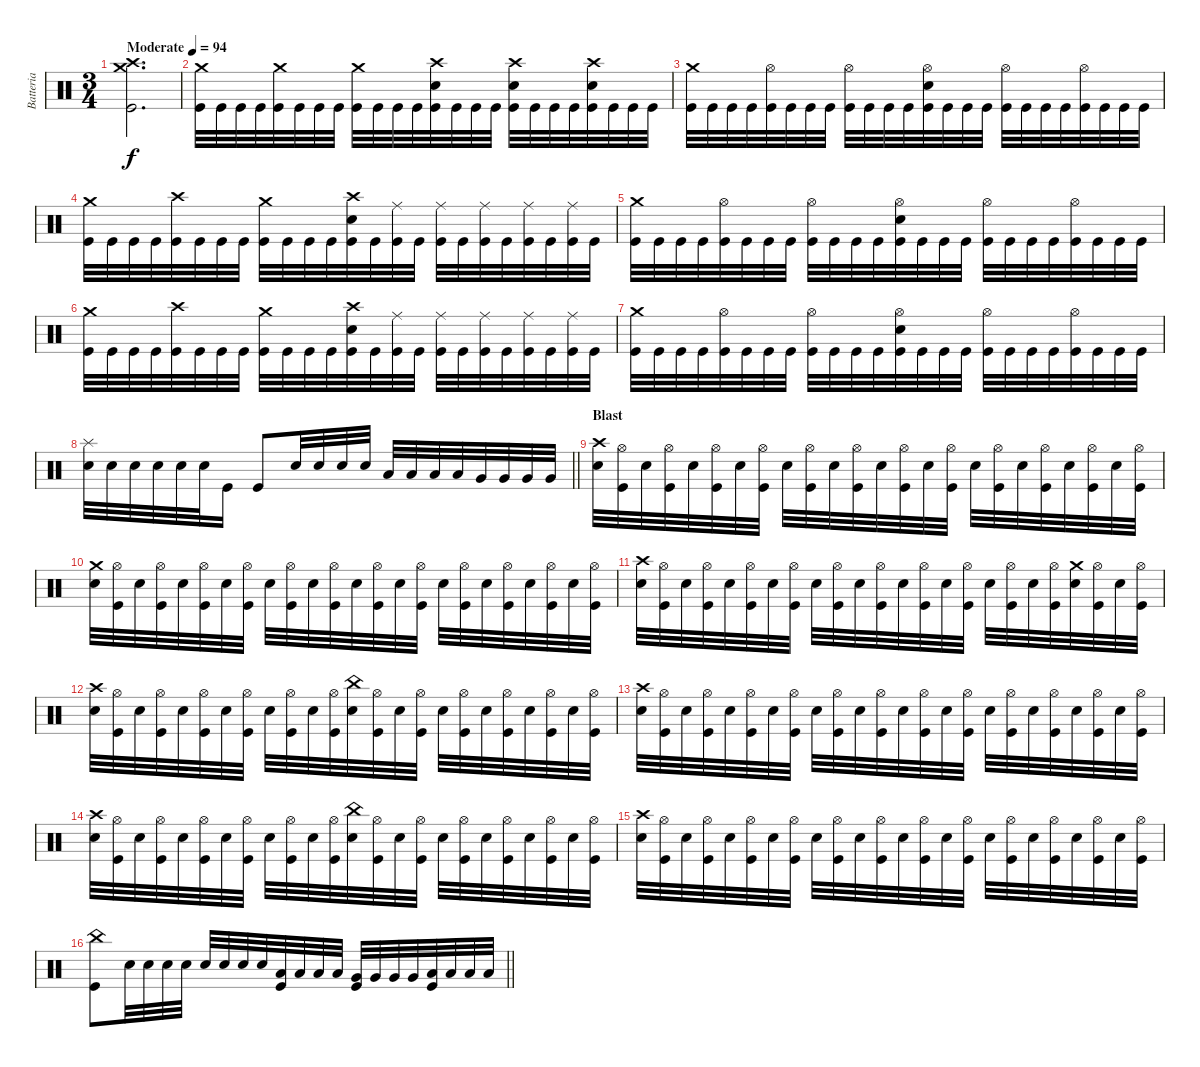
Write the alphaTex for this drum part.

\track ("Batteria" "Batteria") {instrument percussion}
\staff {score}
\articulation defaults
\ts (3 4)
\tempo (94 "Moderate")
\clef neutral
\ks c
("Crash medium (hit)" "Crash high (hit)" "Kick (hit)").2{d dy f} |
("Crash medium (hit)" "Kick (hit)").32 "Kick (hit)".32 "Kick (hit)".32 "Kick (hit)".32 ("Crash medium (hit)" "Kick (hit)").32 "Kick (hit)".32 "Kick (hit)".32 "Kick (hit)".32 ("Crash medium (hit)" "Kick (hit)").32 "Kick (hit)".32 "Kick (hit)".32 "Kick (hit)".32 ("Crash high (hit)" "Snare (hit) 2" "Kick (hit)").32 "Kick (hit)".32 "Kick (hit)".32 "Kick (hit)".32 ("Crash high (hit)" "Snare (hit) 2" "Kick (hit)").32 "Kick (hit)".32 "Kick (hit)".32 "Kick (hit)".32 ("Crash high (hit)" "Snare (hit) 2" "Kick (hit)").32 "Kick (hit)".32 "Kick (hit)".32 "Kick (hit)".32 |
("Crash medium (hit)" "Kick (hit)").32 "Kick (hit)".32 "Kick (hit)".32 "Kick (hit)".32 ("Hi-Hat (open)" "Kick (hit)").32 "Kick (hit)".32 "Kick (hit)".32 "Kick (hit)".32 ("Hi-Hat (open)" "Kick (hit)").32 "Kick (hit)".32 "Kick (hit)".32 "Kick (hit)".32 ("Hi-Hat (open)" "Snare (hit) 2" "Kick (hit)").32 "Kick (hit)".32 "Kick (hit)".32 "Kick (hit)".32 ("Hi-Hat (open)" "Kick (hit)").32 "Kick (hit)".32 "Kick (hit)".32 "Kick (hit)".32 ("Hi-Hat (open)" "Kick (hit)").32 "Kick (hit)".32 "Kick (hit)".32 "Kick (hit)".32 |
("Crash medium (hit)" "Kick (hit)").32 "Kick (hit)".32 "Kick (hit)".32 "Kick (hit)".32 ("Crash high (hit)" "Kick (hit)").32 "Kick (hit)".32 "Kick (hit)".32 "Kick (hit)".32 ("Crash medium (hit)" "Kick (hit)").32 "Kick (hit)".32 "Kick (hit)".32 "Kick (hit)".32 ("Crash high (hit)" "Snare (hit) 2" "Kick (hit)").32 "Kick (hit)".32 ("Ride (middle)" "Kick (hit)").32 "Kick (hit)".32 ("Ride (middle)" "Kick (hit)").32 "Kick (hit)".32 ("Ride (middle)" "Kick (hit)").32 "Kick (hit)".32 ("Ride (middle)" "Kick (hit)").32 "Kick (hit)".32 ("Ride (middle)" "Kick (hit)").32 "Kick (hit)".32 |
("Crash medium (hit)" "Kick (hit)").32 "Kick (hit)".32 "Kick (hit)".32 "Kick (hit)".32 ("Hi-Hat (open)" "Kick (hit)").32 "Kick (hit)".32 "Kick (hit)".32 "Kick (hit)".32 ("Hi-Hat (open)" "Kick (hit)").32 "Kick (hit)".32 "Kick (hit)".32 "Kick (hit)".32 ("Hi-Hat (open)" "Snare (hit) 2" "Kick (hit)").32 "Kick (hit)".32 "Kick (hit)".32 "Kick (hit)".32 ("Hi-Hat (open)" "Kick (hit)").32 "Kick (hit)".32 "Kick (hit)".32 "Kick (hit)".32 ("Hi-Hat (open)" "Kick (hit)").32 "Kick (hit)".32 "Kick (hit)".32 "Kick (hit)".32 |
("Crash medium (hit)" "Kick (hit)").32 "Kick (hit)".32 "Kick (hit)".32 "Kick (hit)".32 ("Crash high (hit)" "Kick (hit)").32 "Kick (hit)".32 "Kick (hit)".32 "Kick (hit)".32 ("Crash medium (hit)" "Kick (hit)").32 "Kick (hit)".32 "Kick (hit)".32 "Kick (hit)".32 ("Crash high (hit)" "Snare (hit) 2" "Kick (hit)").32 "Kick (hit)".32 ("Ride (middle)" "Kick (hit)").32 "Kick (hit)".32 ("Ride (middle)" "Kick (hit)").32 "Kick (hit)".32 ("Ride (middle)" "Kick (hit)").32 "Kick (hit)".32 ("Ride (middle)" "Kick (hit)").32 "Kick (hit)".32 ("Ride (middle)" "Kick (hit)").32 "Kick (hit)".32 |
("Crash medium (hit)" "Kick (hit)").32 "Kick (hit)".32 "Kick (hit)".32 "Kick (hit)".32 ("Hi-Hat (open)" "Kick (hit)").32 "Kick (hit)".32 "Kick (hit)".32 "Kick (hit)".32 ("Hi-Hat (open)" "Kick (hit)").32 "Kick (hit)".32 "Kick (hit)".32 "Kick (hit)".32 ("Hi-Hat (open)" "Snare (hit) 2" "Kick (hit)").32 "Kick (hit)".32 "Kick (hit)".32 "Kick (hit)".32 ("Hi-Hat (open)" "Kick (hit)").32 "Kick (hit)".32 "Kick (hit)".32 "Kick (hit)".32 ("Hi-Hat (open)" "Kick (hit)").32 "Kick (hit)".32 "Kick (hit)".32 "Kick (hit)".32 |
\barLineRight lightlight
("Splash (hit)" "Snare (hit) 2").32 "Snare (hit) 2".32 "Snare (hit) 2".32 "Snare (hit) 2".32 "Snare (hit) 2".32 "Snare (hit) 2".32 "Kick (hit)".16 "Kick (hit)".8 "Snare (hit) 2".32 "Snare (hit) 2".32 "Snare (hit) 2".32 "Snare (hit) 2".32 "Low Tom (hit)".32 "Low Tom (hit)".32 "Low Tom (hit)".32 "Low Tom (hit)".32 "Very Low Tom (hit)".32 "Very Low Tom (hit)".32 "Very Low Tom (hit)".32 "Very Low Tom (hit)".32 |
\section ("" "Blast")
("Crash high (hit)" "Snare (hit) 2").32 ("Hi-Hat (open)" "Kick (hit)").32 "Snare (hit) 2".32 ("Hi-Hat (open)" "Kick (hit)").32 "Snare (hit) 2".32 ("Hi-Hat (open)" "Kick (hit)").32 "Snare (hit) 2".32 ("Hi-Hat (open)" "Kick (hit)").32 "Snare (hit) 2".32 ("Hi-Hat (open)" "Kick (hit)").32 "Snare (hit) 2".32 ("Hi-Hat (open)" "Kick (hit)").32 "Snare (hit) 2".32 ("Hi-Hat (open)" "Kick (hit)").32 "Snare (hit) 2".32 ("Hi-Hat (open)" "Kick (hit)").32 "Snare (hit) 2".32 ("Hi-Hat (open)" "Kick (hit)").32 "Snare (hit) 2".32 ("Hi-Hat (open)" "Kick (hit)").32 "Snare (hit) 2".32 ("Hi-Hat (open)" "Kick (hit)").32 "Snare (hit) 2".32 ("Hi-Hat (open)" "Kick (hit)").32 |
("Crash medium (hit)" "Snare (hit) 2").32 ("Hi-Hat (open)" "Kick (hit)").32 "Snare (hit) 2".32 ("Hi-Hat (open)" "Kick (hit)").32 "Snare (hit) 2".32 ("Hi-Hat (open)" "Kick (hit)").32 "Snare (hit) 2".32 ("Hi-Hat (open)" "Kick (hit)").32 "Snare (hit) 2".32 ("Hi-Hat (open)" "Kick (hit)").32 "Snare (hit) 2".32 ("Hi-Hat (open)" "Kick (hit)").32 "Snare (hit) 2".32 ("Hi-Hat (open)" "Kick (hit)").32 "Snare (hit) 2".32 ("Hi-Hat (open)" "Kick (hit)").32 "Snare (hit) 2".32 ("Hi-Hat (open)" "Kick (hit)").32 "Snare (hit) 2".32 ("Hi-Hat (open)" "Kick (hit)").32 "Snare (hit) 2".32 ("Hi-Hat (open)" "Kick (hit)").32 "Snare (hit) 2".32 ("Hi-Hat (open)" "Kick (hit)").32 |
("Crash high (hit)" "Snare (hit) 2").32 ("Hi-Hat (open)" "Kick (hit)").32 "Snare (hit) 2".32 ("Hi-Hat (open)" "Kick (hit)").32 "Snare (hit) 2".32 ("Hi-Hat (open)" "Kick (hit)").32 "Snare (hit) 2".32 ("Hi-Hat (open)" "Kick (hit)").32 "Snare (hit) 2".32 ("Hi-Hat (open)" "Kick (hit)").32 "Snare (hit) 2".32 ("Hi-Hat (open)" "Kick (hit)").32 "Snare (hit) 2".32 ("Hi-Hat (open)" "Kick (hit)").32 "Snare (hit) 2".32 ("Hi-Hat (open)" "Kick (hit)").32 "Snare (hit) 2".32 ("Hi-Hat (open)" "Kick (hit)").32 "Snare (hit) 2".32 ("Hi-Hat (open)" "Kick (hit)").32 ("Crash medium (hit)" "Snare (hit) 2").32 ("Hi-Hat (open)" "Kick (hit)").32 "Snare (hit) 2".32 ("Hi-Hat (open)" "Kick (hit)").32 |
("Crash high (hit)" "Snare (hit) 2").32 ("Hi-Hat (open)" "Kick (hit)").32 "Snare (hit) 2".32 ("Hi-Hat (open)" "Kick (hit)").32 "Snare (hit) 2".32 ("Hi-Hat (open)" "Kick (hit)").32 "Snare (hit) 2".32 ("Hi-Hat (open)" "Kick (hit)").32 "Snare (hit) 2".32 ("Hi-Hat (open)" "Kick (hit)").32 "Snare (hit) 2".32 ("Hi-Hat (open)" "Kick (hit)").32 ("China (hit)" "Snare (hit) 2").32 ("Hi-Hat (open)" "Kick (hit)").32 "Snare (hit) 2".32 ("Hi-Hat (open)" "Kick (hit)").32 "Snare (hit) 2".32 ("Hi-Hat (open)" "Kick (hit)").32 "Snare (hit) 2".32 ("Hi-Hat (open)" "Kick (hit)").32 "Snare (hit) 2".32 ("Hi-Hat (open)" "Kick (hit)").32 "Snare (hit) 2".32 ("Hi-Hat (open)" "Kick (hit)").32 |
("Crash high (hit)" "Snare (hit) 2").32 ("Hi-Hat (open)" "Kick (hit)").32 "Snare (hit) 2".32 ("Hi-Hat (open)" "Kick (hit)").32 "Snare (hit) 2".32 ("Hi-Hat (open)" "Kick (hit)").32 "Snare (hit) 2".32 ("Hi-Hat (open)" "Kick (hit)").32 "Snare (hit) 2".32 ("Hi-Hat (open)" "Kick (hit)").32 "Snare (hit) 2".32 ("Hi-Hat (open)" "Kick (hit)").32 "Snare (hit) 2".32 ("Hi-Hat (open)" "Kick (hit)").32 "Snare (hit) 2".32 ("Hi-Hat (open)" "Kick (hit)").32 "Snare (hit) 2".32 ("Hi-Hat (open)" "Kick (hit)").32 "Snare (hit) 2".32 ("Hi-Hat (open)" "Kick (hit)").32 "Snare (hit) 2".32 ("Hi-Hat (open)" "Kick (hit)").32 "Snare (hit) 2".32 ("Hi-Hat (open)" "Kick (hit)").32 |
("Crash high (hit)" "Snare (hit) 2").32 ("Hi-Hat (open)" "Kick (hit)").32 "Snare (hit) 2".32 ("Hi-Hat (open)" "Kick (hit)").32 "Snare (hit) 2".32 ("Hi-Hat (open)" "Kick (hit)").32 "Snare (hit) 2".32 ("Hi-Hat (open)" "Kick (hit)").32 "Snare (hit) 2".32 ("Hi-Hat (open)" "Kick (hit)").32 "Snare (hit) 2".32 ("Hi-Hat (open)" "Kick (hit)").32 ("China (hit)" "Snare (hit) 2").32 ("Hi-Hat (open)" "Kick (hit)").32 "Snare (hit) 2".32 ("Hi-Hat (open)" "Kick (hit)").32 "Snare (hit) 2".32 ("Hi-Hat (open)" "Kick (hit)").32 "Snare (hit) 2".32 ("Hi-Hat (open)" "Kick (hit)").32 "Snare (hit) 2".32 ("Hi-Hat (open)" "Kick (hit)").32 "Snare (hit) 2".32 ("Hi-Hat (open)" "Kick (hit)").32 |
("Crash high (hit)" "Snare (hit) 2").32 ("Hi-Hat (open)" "Kick (hit)").32 "Snare (hit) 2".32 ("Hi-Hat (open)" "Kick (hit)").32 "Snare (hit) 2".32 ("Hi-Hat (open)" "Kick (hit)").32 "Snare (hit) 2".32 ("Hi-Hat (open)" "Kick (hit)").32 "Snare (hit) 2".32 ("Hi-Hat (open)" "Kick (hit)").32 "Snare (hit) 2".32 ("Hi-Hat (open)" "Kick (hit)").32 "Snare (hit) 2".32 ("Hi-Hat (open)" "Kick (hit)").32 "Snare (hit) 2".32 ("Hi-Hat (open)" "Kick (hit)").32 "Snare (hit) 2".32 ("Hi-Hat (open)" "Kick (hit)").32 "Snare (hit) 2".32 ("Hi-Hat (open)" "Kick (hit)").32 "Snare (hit) 2".32 ("Hi-Hat (open)" "Kick (hit)").32 "Snare (hit) 2".32 ("Hi-Hat (open)" "Kick (hit)").32 |
\barLineRight lightlight
("China (hit)" "Kick (hit)").8 "Snare (hit) 2".32 "Snare (hit) 2".32 "Snare (hit) 2".32 "Snare (hit) 2".32 "Snare (hit) 2".32 "Snare (hit) 2".32 "Snare (hit) 2".32 "Snare (hit) 2".32 ("Low Tom (hit)" "Kick (hit)").32 "Low Tom (hit)".32 "Low Tom (hit)".32 "Low Tom (hit)".32 ("Very Low Tom (hit)" "Kick (hit)").32 "Very Low Tom (hit)".32 "Very Low Tom (hit)".32 "Very Low Tom (hit)".32 ("Low Floor Tom (hit)" "Kick (hit)").32 "Low Floor Tom (hit)".32 "Low Floor Tom (hit)".32 "Low Floor Tom (hit)".32
